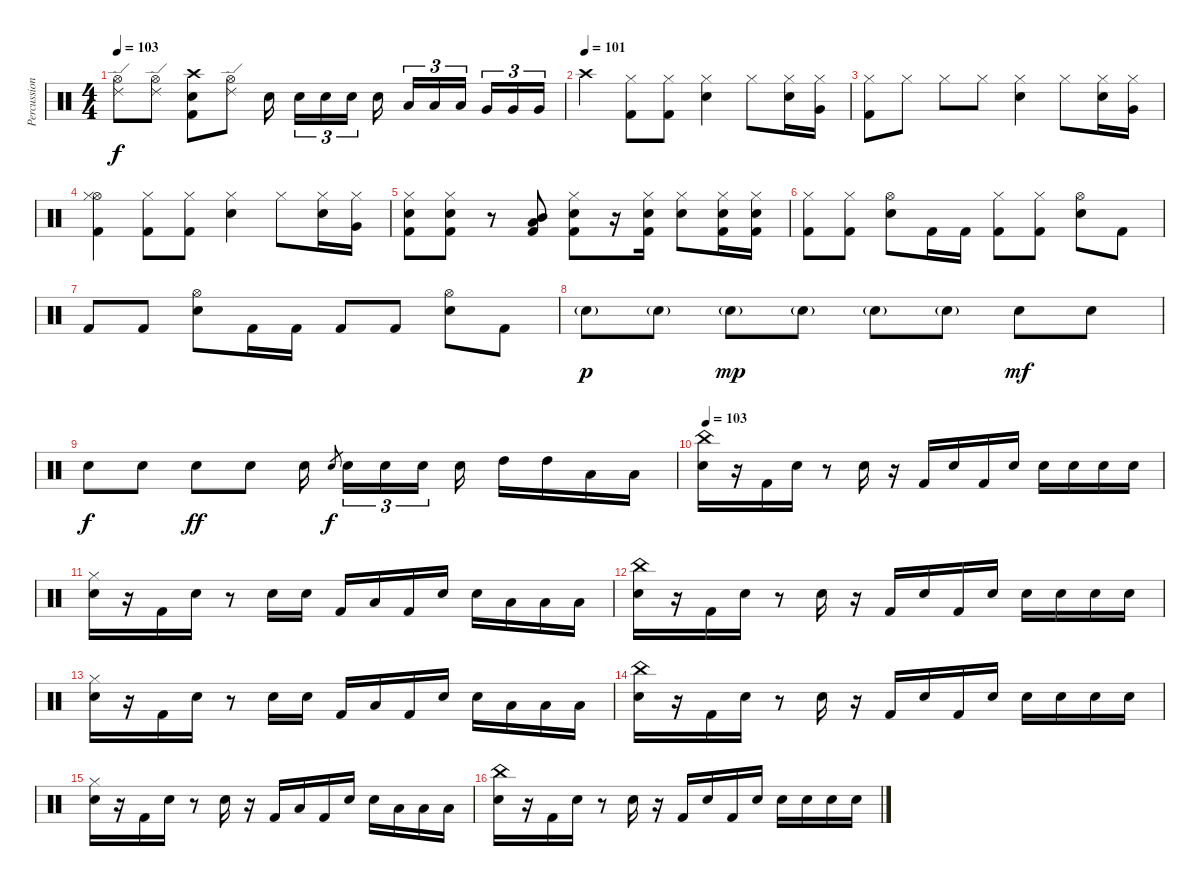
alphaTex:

\track ("Percussion" "Percussion") {instrument percussion}
\staff {score}
\articulation defaults
\ts (4 4)
\tempo 103
\clef neutral
\ks c
("Ride (edge) 2" "Hi-Hat (open)").8{dy f} ("Ride (edge) 2" "Hi-Hat (open)").8 ("Crash high (hit)" "Electric Snare (hit)" "Kick (hit) 2").8 ("Ride (edge) 2" "Hi-Hat (open)").8 "Electric Snare (hit)".16 "Snare (hit) 2".16{tu (3 2)} "Snare (hit) 2".16{tu (3 2)} "Snare (hit) 2".16{tu (3 2)} "Snare (hit) 2".16 "Low Tom (hit)".16{tu (3 2)} "Low Tom (hit)".16{tu (3 2)} "Low Tom (hit)".16{tu (3 2)} "Very Low Tom (hit)".16{tu (3 2)} "Very Low Tom (hit)".16{tu (3 2)} "Very Low Tom (hit)".16{tu (3 2)} |
\tempo (101)
"Crash high (hit)".4 ("Hi-Hat (closed)" "Kick (hit) 2").8 ("Hi-Hat (closed)" "Kick (hit) 2").8 ("Hi-Hat (closed)" "Electric Snare (hit)").4 "Hi-Hat (closed)".8 ("Hi-Hat (closed)" "Electric Snare (hit)").16 ("Hi-Hat (closed)" "Very Low Tom (hit)").16 |
("Hi-Hat (closed)" "Kick (hit) 2").8 "Hi-Hat (closed)".8 "Hi-Hat (closed)".8 "Hi-Hat (closed)".8 ("Hi-Hat (closed)" "Electric Snare (hit)").4 "Hi-Hat (closed)".8 ("Hi-Hat (closed)" "Electric Snare (hit)").16 ("Hi-Hat (closed)" "Very Low Tom (hit)").16 |
("Hi-Hat (open)" "Hi-Hat (closed)" "Kick (hit) 2").4 ("Hi-Hat (closed)" "Kick (hit) 2").8 ("Hi-Hat (closed)" "Kick (hit) 2").8 ("Hi-Hat (closed)" "Electric Snare (hit)").4 "Hi-Hat (closed)".8 ("Hi-Hat (closed)" "Electric Snare (hit)").16 ("Hi-Hat (closed)" "Very Low Tom (hit)").16 |
("Hi-Hat (closed)" "Electric Snare (hit)" "Kick (hit) 2").8 ("Hi-Hat (closed)" "Electric Snare (hit)" "Kick (hit) 2").8 r.8 ("Mid Tom (hit)" "Low Tom (hit)" "Kick (hit) 2").8 ("Hi-Hat (closed)" "Electric Snare (hit)" "Kick (hit) 2").8 r.16 ("Hi-Hat (closed)" "Electric Snare (hit)" "Kick (hit) 2").16 ("Hi-Hat (closed)" "Electric Snare (hit)").8 ("Hi-Hat (closed)" "Electric Snare (hit)" "Kick (hit) 2").16 ("Hi-Hat (closed)" "Electric Snare (hit)" "Kick (hit) 2").16 |
("Hi-Hat (closed)" "Kick (hit) 2").8 ("Hi-Hat (closed)" "Kick (hit) 2").8 ("Hi-Hat (open)" "Electric Snare (hit)").8 "Kick (hit) 2".16 "Kick (hit) 2".16 ("Hi-Hat (closed)" "Kick (hit) 2").8 ("Hi-Hat (closed)" "Kick (hit) 2").8 ("Hi-Hat (open)" "Electric Snare (hit)").8 "Kick (hit) 2".8 |
"Kick (hit) 2".8 "Kick (hit) 2".8 ("Hi-Hat (open)" "Electric Snare (hit)").8 "Kick (hit) 2".16 "Kick (hit) 2".16 "Kick (hit) 2".8 "Kick (hit) 2".8 ("Hi-Hat (open)" "Electric Snare (hit)").8 "Kick (hit) 2".8 |
"Electric Snare (hit)"{g}.8{dy p} "Electric Snare (hit)"{g}.8 "Electric Snare (hit)"{g}.8{dy mp} "Electric Snare (hit)"{g}.8 "Electric Snare (hit)"{g}.8 "Electric Snare (hit)"{g}.8 "Electric Snare (hit)".8{dy mf} "Electric Snare (hit)".8 |
"Electric Snare (hit)".8{dy f} "Electric Snare (hit)".8 "Electric Snare (hit)".8{dy ff} "Electric Snare (hit)".8 "Electric Snare (hit)".16 "Electric Snare (hit)".8{gr dy f} "Electric Snare (hit)".16{tu (3 2)} "Electric Snare (hit)".16{tu (3 2)} "Electric Snare (hit)".16{tu (3 2)} "Electric Snare (hit)".16 "High Tom (hit)".16 "High Tom (hit)".16 "Low Tom (hit)".16 "Low Tom (hit)".16 |
\tempo 103
("China (hit)" "Snare (hit) 2").16 r.16 "Kick (hit) 2".16 "Snare (hit) 2".16 r.8 "Snare (hit) 2".16 r.16 "Kick (hit) 2".16 "Electric Snare (hit)".16 "Kick (hit) 2".16 "Snare (hit) 2".16 "Snare (hit) 2".16 "Electric Snare (hit)".16 "Electric Snare (hit)".16 "Electric Snare (hit)".16 |
("Hi-Hat (closed)" "Snare (hit) 2").16 r.16 "Kick (hit) 2".16 "Electric Snare (hit)".16 r.8 "Snare (hit) 2".16 "Snare (hit) 2".16 "Kick (hit) 2".16 "Low Tom (hit)".16 "Kick (hit) 2".16 "Snare (hit) 2".16 "Snare (hit) 2".16 "Low Tom (hit)".16 "Low Tom (hit)".16 "Low Tom (hit)".16 |
("China (hit)" "Snare (hit) 2").16 r.16 "Kick (hit) 2".16 "Snare (hit) 2".16 r.8 "Snare (hit) 2".16 r.16 "Kick (hit) 2".16 "Electric Snare (hit)".16 "Kick (hit) 2".16 "Snare (hit) 2".16 "Snare (hit) 2".16 "Electric Snare (hit)".16 "Electric Snare (hit)".16 "Electric Snare (hit)".16 |
("Hi-Hat (closed)" "Snare (hit) 2").16 r.16 "Kick (hit) 2".16 "Electric Snare (hit)".16 r.8 "Snare (hit) 2".16 "Snare (hit) 2".16 "Kick (hit) 2".16 "Low Tom (hit)".16 "Kick (hit) 2".16 "Snare (hit) 2".16 "Snare (hit) 2".16 "Low Tom (hit)".16 "Low Tom (hit)".16 "Low Tom (hit)".16 |
("China (hit)" "Snare (hit) 2").16 r.16 "Kick (hit) 2".16 "Snare (hit) 2".16 r.8 "Snare (hit) 2".16 r.16 "Kick (hit) 2".16 "Electric Snare (hit)".16 "Kick (hit) 2".16 "Snare (hit) 2".16 "Snare (hit) 2".16 "Electric Snare (hit)".16 "Electric Snare (hit)".16 "Electric Snare (hit)".16 |
("Hi-Hat (closed)" "Snare (hit) 2").16 r.16 "Kick (hit) 2".16 "Electric Snare (hit)".16 r.8 "Snare (hit) 2".16 r.16 "Kick (hit) 2".16 "Low Tom (hit)".16 "Kick (hit) 2".16 "Snare (hit) 2".16 "Snare (hit) 2".16 "Low Tom (hit)".16 "Low Tom (hit)".16 "Low Tom (hit)".16 |
("China (hit)" "Snare (hit) 2").16 r.16 "Kick (hit) 2".16 "Snare (hit) 2".16 r.8 "Snare (hit) 2".16 r.16 "Kick (hit) 2".16 "Electric Snare (hit)".16 "Kick (hit) 2".16 "Snare (hit) 2".16 "Snare (hit) 2".16 "Electric Snare (hit)".16 "Electric Snare (hit)".16 "Electric Snare (hit)".16
